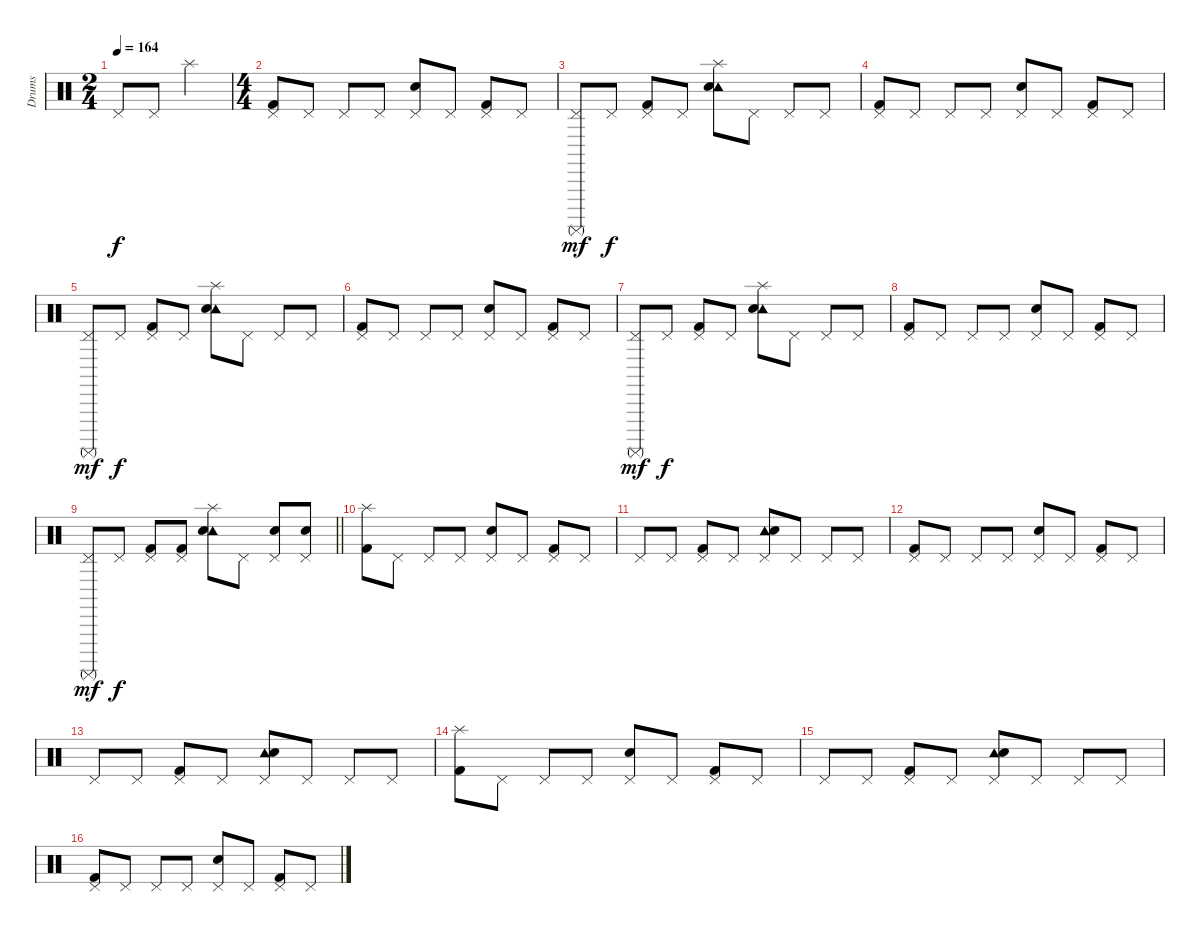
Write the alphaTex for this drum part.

\track ("Drums" "Drums") {instrument percussion}
\staff {score}
\articulation defaults
\ts (2 4)
\tempo 164
\clef neutral
\ks c "Pedal Hi-Hat (hit)".8{dy f} "Pedal Hi-Hat (hit)".8 "Splash (hit)".4
|
\ts (4 4)
("Pedal Hi-Hat (hit)" "Kick (hit) 2").8 "Pedal Hi-Hat (hit)".8 "Pedal Hi-Hat (hit)".8 "Pedal Hi-Hat (hit)".8 ("Pedal Hi-Hat (hit)" "Snare (hit) 2").8 "Pedal Hi-Hat (hit)".8 ("Pedal Hi-Hat (hit)" "Kick (hit) 2").8 "Pedal Hi-Hat (hit)".8 |
("Pedal Hi-Hat (hit)" "Surdo (mute)").8{dy mf} "Pedal Hi-Hat (hit)".8{dy f} ("Pedal Hi-Hat (hit)" "Kick (hit) 2").8 "Pedal Hi-Hat (hit)".8 ("Tambourine (hit)" "Splash (hit)" "Snare (hit) 2").8 "Pedal Hi-Hat (hit)".8 "Pedal Hi-Hat (hit)".8 "Pedal Hi-Hat (hit)".8 |
("Pedal Hi-Hat (hit)" "Kick (hit) 2").8 "Pedal Hi-Hat (hit)".8 "Pedal Hi-Hat (hit)".8 "Pedal Hi-Hat (hit)".8 ("Pedal Hi-Hat (hit)" "Snare (hit) 2").8 "Pedal Hi-Hat (hit)".8 ("Pedal Hi-Hat (hit)" "Kick (hit) 2").8 "Pedal Hi-Hat (hit)".8 |
("Pedal Hi-Hat (hit)" "Surdo (mute)").8{dy mf} "Pedal Hi-Hat (hit)".8{dy f} ("Pedal Hi-Hat (hit)" "Kick (hit) 2").8 "Pedal Hi-Hat (hit)".8 ("Tambourine (hit)" "Splash (hit)" "Snare (hit) 2").8 "Pedal Hi-Hat (hit)".8 "Pedal Hi-Hat (hit)".8 "Pedal Hi-Hat (hit)".8 |
("Pedal Hi-Hat (hit)" "Kick (hit) 2").8 "Pedal Hi-Hat (hit)".8 "Pedal Hi-Hat (hit)".8 "Pedal Hi-Hat (hit)".8 ("Pedal Hi-Hat (hit)" "Snare (hit) 2").8 "Pedal Hi-Hat (hit)".8 ("Pedal Hi-Hat (hit)" "Kick (hit) 2").8 "Pedal Hi-Hat (hit)".8 |
("Pedal Hi-Hat (hit)" "Surdo (mute)").8{dy mf} "Pedal Hi-Hat (hit)".8{dy f} ("Pedal Hi-Hat (hit)" "Kick (hit) 2").8 "Pedal Hi-Hat (hit)".8 ("Tambourine (hit)" "Splash (hit)" "Snare (hit) 2").8 "Pedal Hi-Hat (hit)".8 "Pedal Hi-Hat (hit)".8 "Pedal Hi-Hat (hit)".8 |
("Pedal Hi-Hat (hit)" "Kick (hit) 2").8 "Pedal Hi-Hat (hit)".8 "Pedal Hi-Hat (hit)".8 "Pedal Hi-Hat (hit)".8 ("Pedal Hi-Hat (hit)" "Snare (hit) 2").8 "Pedal Hi-Hat (hit)".8 ("Pedal Hi-Hat (hit)" "Kick (hit) 2").8 "Pedal Hi-Hat (hit)".8 |
\barLineRight lightlight
("Pedal Hi-Hat (hit)" "Surdo (mute)").8{dy mf} "Pedal Hi-Hat (hit)".8{dy f} ("Pedal Hi-Hat (hit)" "Kick (hit) 2").8 ("Pedal Hi-Hat (hit)" "Kick (hit) 2").8 ("Tambourine (hit)" "Splash (hit)" "Snare (hit) 2").8 "Pedal Hi-Hat (hit)".8 ("Pedal Hi-Hat (hit)" "Snare (hit) 2").8 ("Pedal Hi-Hat (hit)" "Snare (hit) 2").8 |
("Splash (hit)" "Kick (hit) 2").8 "Pedal Hi-Hat (hit)".8 "Pedal Hi-Hat (hit)".8 "Pedal Hi-Hat (hit)".8 ("Pedal Hi-Hat (hit)" "Snare (hit) 2").8 "Pedal Hi-Hat (hit)".8 ("Pedal Hi-Hat (hit)" "Kick (hit) 2").8 "Pedal Hi-Hat (hit)".8 |
"Pedal Hi-Hat (hit)".8 "Pedal Hi-Hat (hit)".8 ("Pedal Hi-Hat (hit)" "Kick (hit) 2").8 "Pedal Hi-Hat (hit)".8 ("Tambourine (hit)" "Pedal Hi-Hat (hit)" "Snare (hit) 2").8 "Pedal Hi-Hat (hit)".8 "Pedal Hi-Hat (hit)".8 "Pedal Hi-Hat (hit)".8 |
("Pedal Hi-Hat (hit)" "Kick (hit) 2").8 "Pedal Hi-Hat (hit)".8 "Pedal Hi-Hat (hit)".8 "Pedal Hi-Hat (hit)".8 ("Pedal Hi-Hat (hit)" "Snare (hit) 2").8 "Pedal Hi-Hat (hit)".8 ("Pedal Hi-Hat (hit)" "Kick (hit) 2").8 "Pedal Hi-Hat (hit)".8 |
"Pedal Hi-Hat (hit)".8 "Pedal Hi-Hat (hit)".8 ("Pedal Hi-Hat (hit)" "Kick (hit) 2").8 "Pedal Hi-Hat (hit)".8 ("Tambourine (hit)" "Pedal Hi-Hat (hit)" "Snare (hit) 2").8 "Pedal Hi-Hat (hit)".8 "Pedal Hi-Hat (hit)".8 "Pedal Hi-Hat (hit)".8 |
("Splash (hit)" "Kick (hit) 2").8 "Pedal Hi-Hat (hit)".8 "Pedal Hi-Hat (hit)".8 "Pedal Hi-Hat (hit)".8 ("Pedal Hi-Hat (hit)" "Snare (hit) 2").8 "Pedal Hi-Hat (hit)".8 ("Pedal Hi-Hat (hit)" "Kick (hit) 2").8 "Pedal Hi-Hat (hit)".8 |
"Pedal Hi-Hat (hit)".8 "Pedal Hi-Hat (hit)".8 ("Pedal Hi-Hat (hit)" "Kick (hit) 2").8 "Pedal Hi-Hat (hit)".8 ("Tambourine (hit)" "Pedal Hi-Hat (hit)" "Snare (hit) 2").8 "Pedal Hi-Hat (hit)".8 "Pedal Hi-Hat (hit)".8 "Pedal Hi-Hat (hit)".8 |
("Pedal Hi-Hat (hit)" "Kick (hit) 2").8 "Pedal Hi-Hat (hit)".8 "Pedal Hi-Hat (hit)".8 "Pedal Hi-Hat (hit)".8 ("Pedal Hi-Hat (hit)" "Snare (hit) 2").8 "Pedal Hi-Hat (hit)".8 ("Pedal Hi-Hat (hit)" "Kick (hit) 2").8 "Pedal Hi-Hat (hit)".8
